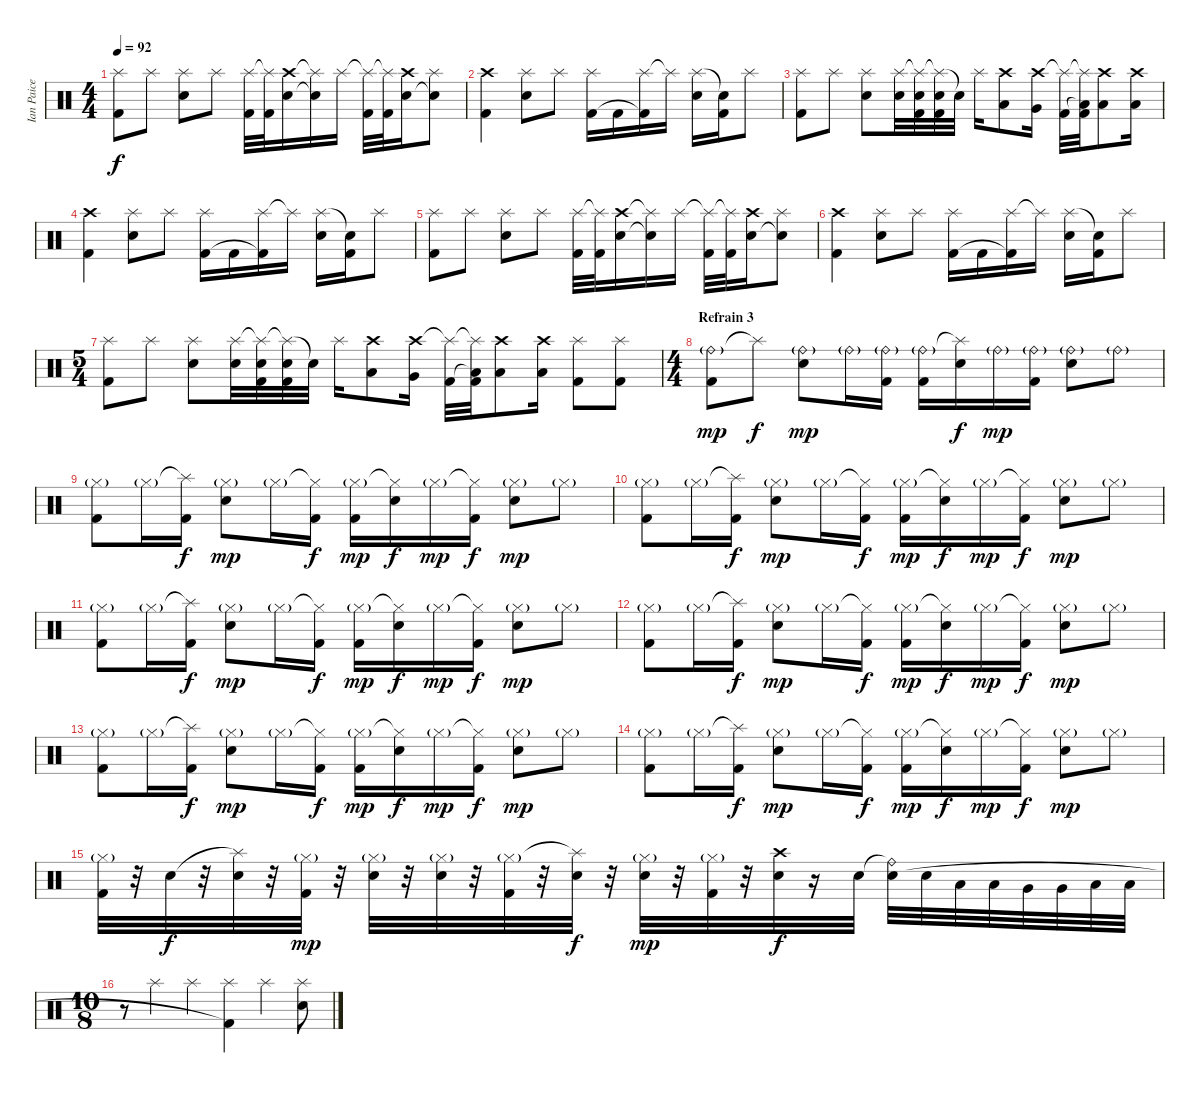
\track ("Ian Paice" "Ian Paice") {instrument percussion}
\staff {score}
\articulation defaults
\ts (4 4)
\tempo 92
\clef neutral
\ks c
("Splash (hit)" "Kick (hit) 2").8{dy f} "Splash (hit)".8 ("Splash (hit)" "Snare (hit) 2").8 "Splash (hit)".8 ("Splash (hit)" "Kick (hit) 2").32 ("Splash (hit)"{t} "Kick (hit) 2").32 ("Crash high (hit)" "Snare (hit) 2").16 ("Splash (hit)"{t} "Snare (hit)"{t}).16 "Splash (hit)".16 ("Splash (hit)"{t} "Kick (hit) 2").32 ("Splash (hit)"{t} "Kick (hit) 2").32 ("Crash high (hit)" "Snare (hit) 2").16 ("Splash (hit)" "Snare (hit)"{t}).8 |
("Crash high (hit)" "Kick (hit) 2").4 ("Splash (hit)" "Snare (hit) 2").8 "Splash (hit)".8 ("Splash (hit)" "Kick (hit) 2").16 "Kick (hit) 2".16 ("Splash (hit)" "Kick (hit) 2"{t}).16 "Splash (hit)"{t}.16 ("Splash (hit)" "Snare (hit) 2").16 ("Snare (hit)"{t} "Kick (hit) 2").16 "Splash (hit)".8 |
("Splash (hit)" "Kick (hit) 2").8 "Splash (hit)".8 ("Splash (hit)" "Snare (hit) 2").8 ("Splash (hit)" "Snare (hit) 2").32 ("Splash (hit)"{t} "Snare (hit) 2" "Kick (hit) 2").32 ("Splash (hit)"{t} "Snare (hit) 2" "Kick (hit) 2").32 "Snare (hit)"{t}.32 "Splash (hit)".16 ("Crash high (hit)" "Low Floor Tom (hit)").8 ("Crash high (hit)" "Very Low Tom (hit)").16 ("Splash (hit)"{t} "Kick (hit) 2").32 ("Splash (hit)"{t} "Low Tom (hit)"{t} "Kick (hit) 2").32 ("Crash high (hit)" "Low Tom (hit)").8 ("Crash high (hit)" "Low Tom (hit)").16 |
("Crash high (hit)" "Kick (hit) 2").4 ("Splash (hit)" "Snare (hit) 2").8 "Splash (hit)".8 ("Splash (hit)" "Kick (hit) 2").16 "Kick (hit) 2".16 ("Splash (hit)" "Kick (hit) 2"{t}).16 "Splash (hit)"{t}.16 ("Splash (hit)" "Snare (hit) 2").16 ("Snare (hit)"{t} "Kick (hit) 2").16 "Splash (hit)".8 |
("Splash (hit)" "Kick (hit) 2").8 "Splash (hit)".8 ("Splash (hit)" "Snare (hit) 2").8 "Splash (hit)".8 ("Splash (hit)" "Kick (hit) 2").32 ("Splash (hit)"{t} "Kick (hit) 2").32 ("Crash high (hit)" "Snare (hit) 2").16 ("Splash (hit)"{t} "Snare (hit)"{t}).16 "Splash (hit)".16 ("Splash (hit)"{t} "Kick (hit) 2").32 ("Splash (hit)"{t} "Kick (hit) 2").32 ("Crash high (hit)" "Snare (hit) 2").16 ("Splash (hit)" "Snare (hit)"{t}).8 |
("Crash high (hit)" "Kick (hit) 2").4 ("Splash (hit)" "Snare (hit) 2").8 "Splash (hit)".8 ("Splash (hit)" "Kick (hit) 2").16 "Kick (hit) 2".16 ("Splash (hit)" "Kick (hit) 2"{t}).16 "Splash (hit)"{t}.16 ("Splash (hit)" "Snare (hit) 2").16 ("Snare (hit)"{t} "Kick (hit) 2").16 "Splash (hit)".8 |
\ts (5 4)
("Splash (hit)" "Kick (hit) 2").8 "Splash (hit)".8 ("Splash (hit)" "Snare (hit) 2").8 ("Splash (hit)" "Snare (hit) 2").32 ("Splash (hit)"{t} "Snare (hit) 2" "Kick (hit) 2").32 ("Splash (hit)"{t} "Snare (hit) 2" "Kick (hit) 2").32 "Snare (hit)"{t}.32 "Splash (hit)".16 ("Crash high (hit)" "Low Floor Tom (hit)").8 ("Crash high (hit)" "Very Low Tom (hit)").16 ("Splash (hit)"{t} "Kick (hit) 2").32 ("Splash (hit)"{t} "Low Tom (hit)"{t} "Kick (hit) 2").32 ("Crash high (hit)" "Low Tom (hit)").8 ("Crash high (hit)" "Low Tom (hit)").16 ("Splash (hit)" "Kick (hit) 2").8 ("Splash (hit)" "Kick (hit) 2").8 |
\ts (4 4)
\section ("" "Refrain 3")
("Ride (bell)"{g} "Kick (hit) 2").8{dy mp} "Splash (hit)"{t}.8{dy f} ("Ride (bell)"{g} "Snare (hit) 2").8{dy mp} "Ride (bell)"{g}.16 ("Ride (bell)"{g} "Kick (hit) 2").16 ("Ride (bell)"{g} "Kick (hit) 2").16 ("Splash (hit)"{t} "Snare (hit) 2").16{dy f} "Ride (bell)"{g}.16{dy mp} ("Ride (bell)"{g} "Kick (hit) 2").16 ("Ride (bell)"{g} "Snare (hit) 2").8 "Ride (bell)"{g}.8 |
("Hi-Hat (closed)"{g} "Kick (hit) 2").8 "Hi-Hat (closed)"{g}.16 ("Splash (hit)"{t} "Kick (hit) 2").16{dy f} ("Hi-Hat (closed)"{g} "Snare (hit) 2").8{dy mp} "Hi-Hat (closed)"{g}.16 ("Hi-Hat (closed)"{t} "Kick (hit) 2").16{dy f} ("Hi-Hat (closed)"{g} "Kick (hit) 2").16{dy mp} ("Hi-Hat (closed)"{t} "Snare (hit) 2").16{dy f} "Hi-Hat (closed)"{g}.16{dy mp} ("Hi-Hat (closed)"{t} "Kick (hit) 2").16{dy f} ("Hi-Hat (closed)"{g} "Snare (hit) 2").8{dy mp} "Hi-Hat (closed)"{g}.8 |
("Hi-Hat (closed)"{g} "Kick (hit) 2").8 "Hi-Hat (closed)"{g}.16 ("Splash (hit)"{t} "Kick (hit) 2").16{dy f} ("Hi-Hat (closed)"{g} "Snare (hit) 2").8{dy mp} "Hi-Hat (closed)"{g}.16 ("Hi-Hat (closed)"{t} "Kick (hit) 2").16{dy f} ("Hi-Hat (closed)"{g} "Kick (hit) 2").16{dy mp} ("Hi-Hat (closed)"{t} "Snare (hit) 2").16{dy f} "Hi-Hat (closed)"{g}.16{dy mp} ("Hi-Hat (closed)"{t} "Kick (hit) 2").16{dy f} ("Hi-Hat (closed)"{g} "Snare (hit) 2").8{dy mp} "Hi-Hat (closed)"{g}.8 |
("Hi-Hat (closed)"{g} "Kick (hit) 2").8 "Hi-Hat (closed)"{g}.16 ("Splash (hit)"{t} "Kick (hit) 2").16{dy f} ("Hi-Hat (closed)"{g} "Snare (hit) 2").8{dy mp} "Hi-Hat (closed)"{g}.16 ("Hi-Hat (closed)"{t} "Kick (hit) 2").16{dy f} ("Hi-Hat (closed)"{g} "Kick (hit) 2").16{dy mp} ("Hi-Hat (closed)"{t} "Snare (hit) 2").16{dy f} "Hi-Hat (closed)"{g}.16{dy mp} ("Hi-Hat (closed)"{t} "Kick (hit) 2").16{dy f} ("Hi-Hat (closed)"{g} "Snare (hit) 2").8{dy mp} "Hi-Hat (closed)"{g}.8 |
("Hi-Hat (closed)"{g} "Kick (hit) 2").8 "Hi-Hat (closed)"{g}.16 ("Splash (hit)"{t} "Kick (hit) 2").16{dy f} ("Hi-Hat (closed)"{g} "Snare (hit) 2").8{dy mp} "Hi-Hat (closed)"{g}.16 ("Hi-Hat (closed)"{t} "Kick (hit) 2").16{dy f} ("Hi-Hat (closed)"{g} "Kick (hit) 2").16{dy mp} ("Hi-Hat (closed)"{t} "Snare (hit) 2").16{dy f} "Hi-Hat (closed)"{g}.16{dy mp} ("Hi-Hat (closed)"{t} "Kick (hit) 2").16{dy f} ("Hi-Hat (closed)"{g} "Snare (hit) 2").8{dy mp} "Hi-Hat (closed)"{g}.8 |
("Hi-Hat (closed)"{g} "Kick (hit) 2").8 "Hi-Hat (closed)"{g}.16 ("Splash (hit)"{t} "Kick (hit) 2").16{dy f} ("Hi-Hat (closed)"{g} "Snare (hit) 2").8{dy mp} "Hi-Hat (closed)"{g}.16 ("Hi-Hat (closed)"{t} "Kick (hit) 2").16{dy f} ("Hi-Hat (closed)"{g} "Kick (hit) 2").16{dy mp} ("Hi-Hat (closed)"{t} "Snare (hit) 2").16{dy f} "Hi-Hat (closed)"{g}.16{dy mp} ("Hi-Hat (closed)"{t} "Kick (hit) 2").16{dy f} ("Hi-Hat (closed)"{g} "Snare (hit) 2").8{dy mp} "Hi-Hat (closed)"{g}.8 |
("Hi-Hat (closed)"{g} "Kick (hit) 2").8 "Hi-Hat (closed)"{g}.16 ("Splash (hit)"{t} "Kick (hit) 2").16{dy f} ("Hi-Hat (closed)"{g} "Snare (hit) 2").8{dy mp} "Hi-Hat (closed)"{g}.16 ("Hi-Hat (closed)"{t} "Kick (hit) 2").16{dy f} ("Hi-Hat (closed)"{g} "Kick (hit) 2").16{dy mp} ("Hi-Hat (closed)"{t} "Snare (hit) 2").16{dy f} "Hi-Hat (closed)"{g}.16{dy mp} ("Hi-Hat (closed)"{t} "Kick (hit) 2").16{dy f} ("Hi-Hat (closed)"{g} "Snare (hit) 2").8{dy mp} "Hi-Hat (closed)"{g}.8 |
("Hi-Hat (closed)"{g} "Kick (hit) 2").32 r.32 "Snare (hit) 2".32{dy f} r.32 ("Splash (hit)"{t} "Snare (hit) 2").32 r.32 ("Hi-Hat (closed)"{g} "Kick (hit) 2").32{dy mp} r.32 ("Hi-Hat (closed)"{g} "Snare (hit) 2").32 r.32 ("Hi-Hat (closed)"{g} "Snare (hit) 2").32 r.32 ("Hi-Hat (closed)"{g} "Kick (hit) 2").32 r.32 ("Splash (hit)"{t} "Snare (hit) 2").32{dy f} r.32 ("Hi-Hat (closed)"{g} "Snare (hit) 2").32{dy mp} r.32 ("Hi-Hat (closed)"{g} "Kick (hit) 2").32 r.32 ("Crash high (hit)" "Snare (hit) 2").32{dy f} r.16 "Snare (hit) 2".32 ("Ride (bell)"{t} "Snare (hit) 2").32 "Snare (hit) 2".32 "Low Tom (hit)".32 "Low Tom (hit)".32 "Very Low Tom (hit)".32 "Very Low Tom (hit)".32 "Low Floor Tom (hit)".32 "Low Floor Tom (hit)".32 |
\ts (10 8)
r.8 "Splash (hit)".4 "Splash (hit)".4 ("Splash (hit)" "Kick (hit) 2"{t}).4 "Splash (hit)".4 ("Splash (hit)" "Snare (hit) 2").8
